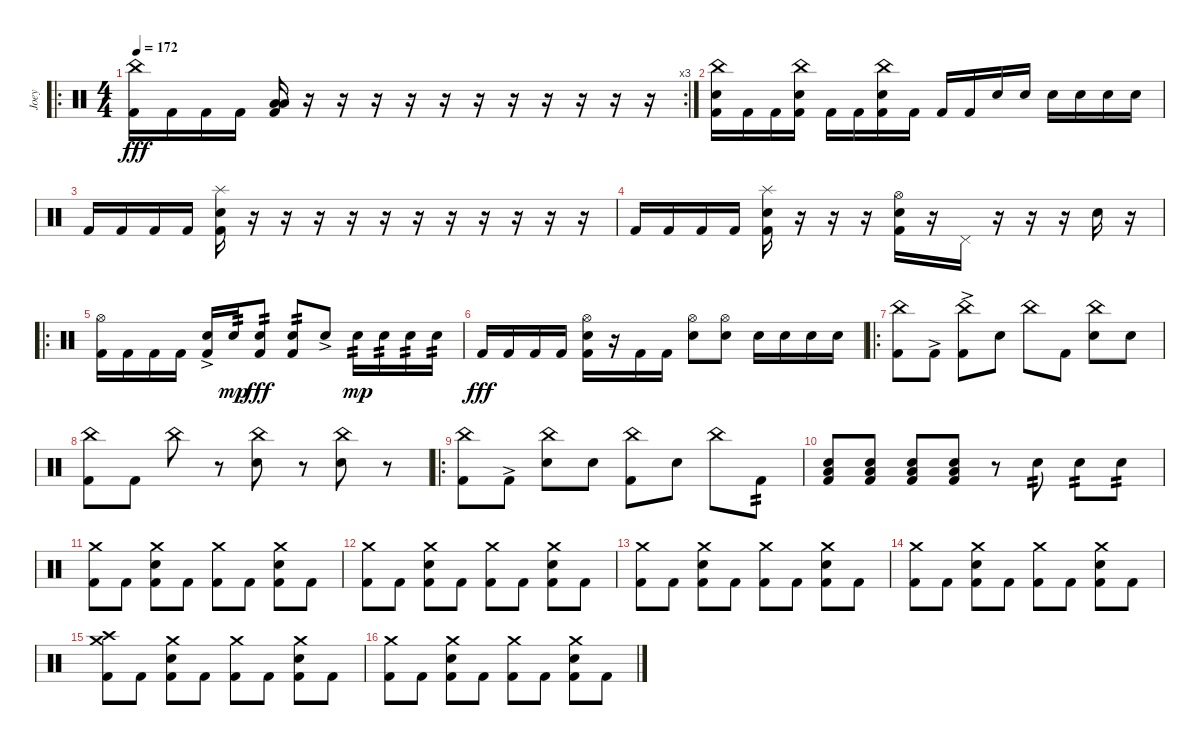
\track ("Joey" "Joey") {instrument percussion}
\staff {score}
\articulation defaults
\ro
\rc 3
\ts (4 4)
\tempo 172
\clef neutral
\ks c
("China (hit)" "Kick (hit) 2").16{dy fff} "Kick (hit) 2".16 "Kick (hit) 2".16 "Kick (hit) 2".16 ("Low Tom (hit)" "Low Floor Tom (hit)" "Kick (hit) 2").16 r.16 r.16 r.16 r.16 r.16 r.16 r.16 r.16 r.16 r.16 r.16 |
("China (hit)" "Snare (hit) 2" "Kick (hit) 2").16 "Kick (hit) 2".16 "Kick (hit) 2".16 ("China (hit)" "Snare (hit) 2" "Kick (hit) 2").16 "Kick (hit) 2".16 "Kick (hit) 2".16 ("China (hit)" "Snare (hit) 2" "Kick (hit) 2").16 "Kick (hit) 2".16 "Kick (hit) 2".16 "Kick (hit) 2".16 "Snare (hit) 2".16 "Snare (hit) 2".16 "Snare (hit) 2".16 "Snare (hit) 2".16 "Snare (hit) 2".16 "Snare (hit) 2".16 |
"Kick (hit) 2".16 "Kick (hit) 2".16 "Kick (hit) 2".16 "Kick (hit) 2".16 ("Splash (hit)" "Snare (hit) 2" "Kick (hit) 2").16 r.16 r.16 r.16 r.16 r.16 r.16 r.16 r.16 r.16 r.16 r.16 |
"Kick (hit) 2".16 "Kick (hit) 2".16 "Kick (hit) 2".16 "Kick (hit) 2".16 ("Splash (hit)" "Snare (hit) 2" "Kick (hit) 2").16 r.16 r.16 r.16 ("Hi-Hat (open)" "Snare (hit) 2" "Kick (hit) 2").16 r.16 "Pedal Hi-Hat (hit)".16 r.16 r.16 r.16 "Snare (hit) 2".16 r.16 |
\ro
("Hi-Hat (open)" "Kick (hit) 2").16 "Kick (hit) 2".16 "Kick (hit) 2".16 "Kick (hit) 2".16 ("Snare (hit) 2"{ac} "Kick (hit) 2").16 "Snare (hit) 2".16{tp 2 dy mp} ("Snare (hit) 2" "Kick (hit) 2").8{tp 2 dy fff} ("Snare (hit) 2" "Kick (hit) 2").8{tp 2} "Snare (hit) 2"{ac}.8 "Snare (hit) 2".16{tp 2 dy mp} "Snare (hit) 2".16{tp 2} "Snare (hit) 2".16{tp 2} "Snare (hit) 2".16{tp 2} |
"Kick (hit) 2".16{dy fff} "Kick (hit) 2".16 "Kick (hit) 2".16 "Kick (hit) 2".16 ("Hi-Hat (open)" "Snare (hit) 2" "Kick (hit) 2").16 r.16 "Kick (hit) 2".16 "Kick (hit) 2".16 ("Hi-Hat (open)" "Snare (hit) 2").8 ("Hi-Hat (open)" "Snare (hit) 2").8 "Snare (hit) 2".16 "Snare (hit) 2".16 "Snare (hit) 2".16 "Snare (hit) 2".16 |
\ro
("China (hit)" "Kick (hit) 2").8 "Kick (hit) 2"{ac}.8 ("China (hit)" "Kick (hit) 2"{ac}).8 "Snare (hit) 2".8 "China (hit)".8 "Kick (hit) 2".8 ("China (hit)" "Snare (hit) 2").8 "Snare (hit) 2".8 |
("China (hit)" "Kick (hit) 2").8 "Kick (hit) 2".8 "China (hit)".8 r.8 ("China (hit)" "Snare (hit) 2").8 r.8 ("China (hit)" "Snare (hit) 2").8 r.8 |
\ro
("China (hit)" "Kick (hit) 2").8 "Kick (hit) 2"{ac}.8 ("China (hit)" "Snare (hit) 2").8 "Snare (hit) 2".8 ("China (hit)" "Kick (hit) 2").8 "Snare (hit) 2".8 "China (hit)".8 "Kick (hit) 2".8{tp 2} |
("Snare (hit) 2" "Low Floor Tom (hit)" "Kick (hit) 2").8 ("Snare (hit) 2" "Low Floor Tom (hit)" "Kick (hit) 2").8 ("Snare (hit) 2" "Low Floor Tom (hit)" "Kick (hit) 2").8 ("Snare (hit) 2" "Low Floor Tom (hit)" "Kick (hit) 2").8 r.8 "Snare (hit) 2".8{tp 2} "Snare (hit) 2".8{tp 2} "Snare (hit) 2".8{tp 2} |
("Crash medium (hit)" "Kick (hit) 2").8 "Kick (hit) 2".8 ("Crash medium (hit)" "Snare (hit) 2" "Kick (hit) 2").8 "Kick (hit) 2".8 ("Crash medium (hit)" "Kick (hit) 2").8 "Kick (hit) 2".8 ("Crash medium (hit)" "Snare (hit) 2" "Kick (hit) 2").8 "Kick (hit) 2".8 |
("Crash medium (hit)" "Kick (hit) 2").8 "Kick (hit) 2".8 ("Crash medium (hit)" "Snare (hit) 2" "Kick (hit) 2").8 "Kick (hit) 2".8 ("Crash medium (hit)" "Kick (hit) 2").8 "Kick (hit) 2".8 ("Crash medium (hit)" "Snare (hit) 2" "Kick (hit) 2").8 "Kick (hit) 2".8 |
("Crash medium (hit)" "Kick (hit) 2").8 "Kick (hit) 2".8 ("Crash medium (hit)" "Snare (hit) 2" "Kick (hit) 2").8 "Kick (hit) 2".8 ("Crash medium (hit)" "Kick (hit) 2").8 "Kick (hit) 2".8 ("Crash medium (hit)" "Snare (hit) 2" "Kick (hit) 2").8 "Kick (hit) 2".8 |
("Crash medium (hit)" "Kick (hit) 2").8 "Kick (hit) 2".8 ("Crash medium (hit)" "Snare (hit) 2" "Kick (hit) 2").8 "Kick (hit) 2".8 ("Crash medium (hit)" "Kick (hit) 2").8 "Kick (hit) 2".8 ("Crash medium (hit)" "Snare (hit) 2" "Kick (hit) 2").8 "Kick (hit) 2".8 |
("Crash medium (hit)" "Crash high (hit)" "Kick (hit) 2").8 "Kick (hit) 2".8 ("Crash medium (hit)" "Snare (hit) 2" "Kick (hit) 2").8 "Kick (hit) 2".8 ("Crash medium (hit)" "Kick (hit) 2").8 "Kick (hit) 2".8 ("Crash medium (hit)" "Snare (hit) 2" "Kick (hit) 2").8 "Kick (hit) 2".8 |
("Crash medium (hit)" "Kick (hit) 2").8 "Kick (hit) 2".8 ("Crash medium (hit)" "Snare (hit) 2" "Kick (hit) 2").8 "Kick (hit) 2".8 ("Crash medium (hit)" "Kick (hit) 2").8 "Kick (hit) 2".8 ("Crash medium (hit)" "Snare (hit) 2" "Kick (hit) 2").8 "Kick (hit) 2".8
